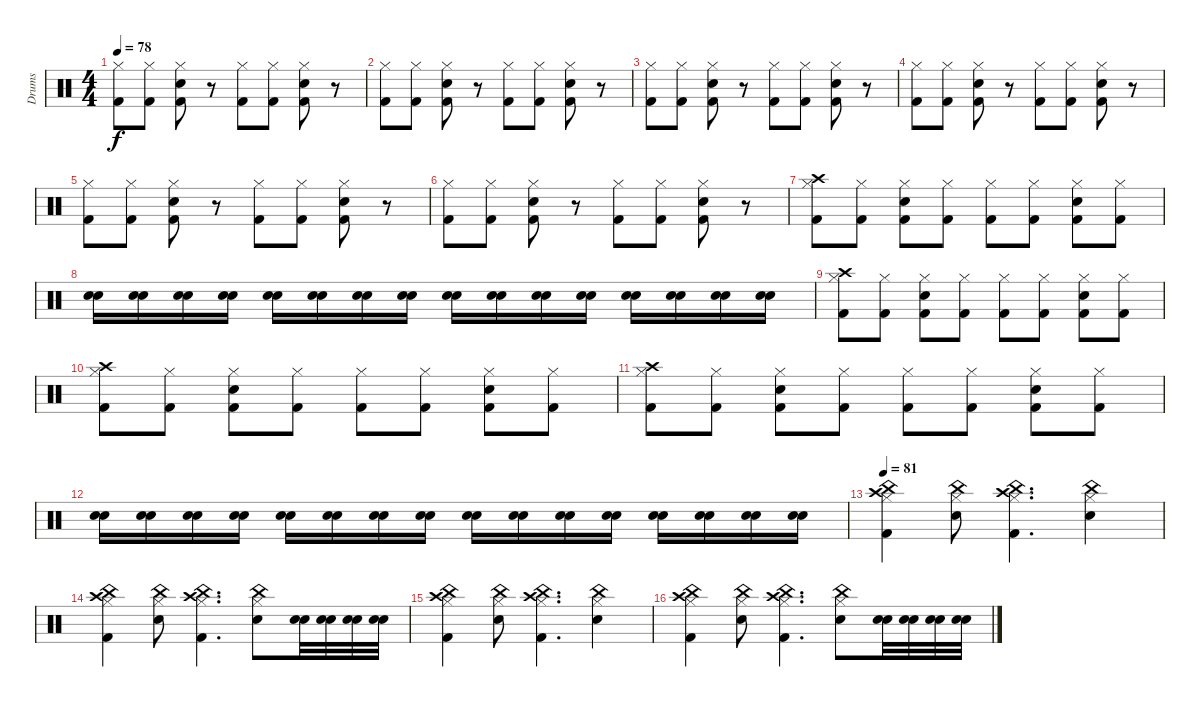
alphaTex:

\track ("Drums" "Drums") {instrument percussion}
\staff {score}
\articulation defaults
\ts (4 4)
\tempo 78
\clef neutral
\ks c
("Hi-Hat (closed)" "Kick (hit) 2").8{dy f} ("Hi-Hat (closed)" "Kick (hit) 2").8 ("Hi-Hat (closed)" "Kick (hit) 2" "Electric Snare (hit)").8 r.8 ("Hi-Hat (closed)" "Kick (hit) 2").8 ("Hi-Hat (closed)" "Kick (hit) 2").8 ("Hi-Hat (closed)" "Kick (hit) 2" "Electric Snare (hit)").8 r.8 |
("Hi-Hat (closed)" "Kick (hit) 2").8 ("Hi-Hat (closed)" "Kick (hit) 2").8 ("Hi-Hat (closed)" "Kick (hit) 2" "Electric Snare (hit)").8 r.8 ("Hi-Hat (closed)" "Kick (hit) 2").8 ("Hi-Hat (closed)" "Kick (hit) 2").8 ("Hi-Hat (closed)" "Kick (hit) 2" "Electric Snare (hit)").8 r.8 |
("Hi-Hat (closed)" "Kick (hit) 2").8 ("Hi-Hat (closed)" "Kick (hit) 2").8 ("Hi-Hat (closed)" "Kick (hit) 2" "Electric Snare (hit)").8 r.8 ("Hi-Hat (closed)" "Kick (hit) 2").8 ("Hi-Hat (closed)" "Kick (hit) 2").8 ("Hi-Hat (closed)" "Kick (hit) 2" "Electric Snare (hit)").8 r.8 |
("Hi-Hat (closed)" "Kick (hit) 2").8 ("Hi-Hat (closed)" "Kick (hit) 2").8 ("Hi-Hat (closed)" "Kick (hit) 2" "Electric Snare (hit)").8 r.8 ("Hi-Hat (closed)" "Kick (hit) 2").8 ("Hi-Hat (closed)" "Kick (hit) 2").8 ("Hi-Hat (closed)" "Kick (hit) 2" "Electric Snare (hit)").8 r.8 |
("Hi-Hat (closed)" "Kick (hit) 2").8 ("Hi-Hat (closed)" "Kick (hit) 2").8 ("Hi-Hat (closed)" "Kick (hit) 2" "Electric Snare (hit)").8 r.8 ("Hi-Hat (closed)" "Kick (hit) 2").8 ("Hi-Hat (closed)" "Kick (hit) 2").8 ("Hi-Hat (closed)" "Kick (hit) 2" "Electric Snare (hit)").8 r.8 |
("Hi-Hat (closed)" "Kick (hit) 2").8 ("Hi-Hat (closed)" "Kick (hit) 2").8 ("Hi-Hat (closed)" "Kick (hit) 2" "Electric Snare (hit)").8 r.8 ("Hi-Hat (closed)" "Kick (hit) 2").8 ("Hi-Hat (closed)" "Kick (hit) 2").8 ("Hi-Hat (closed)" "Kick (hit) 2" "Electric Snare (hit)").8 r.8 |
("Crash high (hit)" "Hi-Hat (closed)" "Kick (hit) 2").8 ("Hi-Hat (closed)" "Kick (hit) 2").8 ("Hi-Hat (closed)" "Kick (hit) 2" "Electric Snare (hit)").8 ("Hi-Hat (closed)" "Kick (hit) 2").8 ("Hi-Hat (closed)" "Kick (hit) 2").8 ("Hi-Hat (closed)" "Kick (hit) 2").8 ("Hi-Hat (closed)" "Kick (hit) 2" "Electric Snare (hit)").8 ("Hi-Hat (closed)" "Kick (hit) 2").8 |
("Electric Snare (hit)" "Snare (hit) 2").16 ("Electric Snare (hit)" "Snare (hit) 2").16 ("Electric Snare (hit)" "Snare (hit) 2").16 ("Electric Snare (hit)" "Snare (hit) 2").16 ("Electric Snare (hit)" "Snare (hit) 2").16 ("Electric Snare (hit)" "Snare (hit) 2").16 ("Electric Snare (hit)" "Snare (hit) 2").16 ("Electric Snare (hit)" "Snare (hit) 2").16 ("Electric Snare (hit)" "Snare (hit) 2").16 ("Electric Snare (hit)" "Snare (hit) 2").16 ("Electric Snare (hit)" "Snare (hit) 2").16 ("Electric Snare (hit)" "Snare (hit) 2").16 ("Electric Snare (hit)" "Snare (hit) 2").16 ("Electric Snare (hit)" "Snare (hit) 2").16 ("Electric Snare (hit)" "Snare (hit) 2").16 ("Electric Snare (hit)" "Snare (hit) 2").16 |
("Crash high (hit)" "Hi-Hat (closed)" "Kick (hit) 2").8 ("Hi-Hat (closed)" "Kick (hit) 2").8 ("Hi-Hat (closed)" "Kick (hit) 2" "Electric Snare (hit)").8 ("Hi-Hat (closed)" "Kick (hit) 2").8 ("Hi-Hat (closed)" "Kick (hit) 2").8 ("Hi-Hat (closed)" "Kick (hit) 2").8 ("Hi-Hat (closed)" "Kick (hit) 2" "Electric Snare (hit)").8 ("Hi-Hat (closed)" "Kick (hit) 2").8 |
("Crash high (hit)" "Hi-Hat (closed)" "Kick (hit) 2").8 ("Hi-Hat (closed)" "Kick (hit) 2").8 ("Hi-Hat (closed)" "Kick (hit) 2" "Electric Snare (hit)").8 ("Hi-Hat (closed)" "Kick (hit) 2").8 ("Hi-Hat (closed)" "Kick (hit) 2").8 ("Hi-Hat (closed)" "Kick (hit) 2").8 ("Hi-Hat (closed)" "Kick (hit) 2" "Electric Snare (hit)").8 ("Hi-Hat (closed)" "Kick (hit) 2").8 |
("Crash high (hit)" "Hi-Hat (closed)" "Kick (hit) 2").8 ("Hi-Hat (closed)" "Kick (hit) 2").8 ("Hi-Hat (closed)" "Kick (hit) 2" "Electric Snare (hit)").8 ("Hi-Hat (closed)" "Kick (hit) 2").8 ("Hi-Hat (closed)" "Kick (hit) 2").8 ("Hi-Hat (closed)" "Kick (hit) 2").8 ("Hi-Hat (closed)" "Kick (hit) 2" "Electric Snare (hit)").8 ("Hi-Hat (closed)" "Kick (hit) 2").8 |
("Electric Snare (hit)" "Snare (hit) 2").16 ("Electric Snare (hit)" "Snare (hit) 2").16 ("Electric Snare (hit)" "Snare (hit) 2").16 ("Electric Snare (hit)" "Snare (hit) 2").16 ("Electric Snare (hit)" "Snare (hit) 2").16 ("Electric Snare (hit)" "Snare (hit) 2").16 ("Electric Snare (hit)" "Snare (hit) 2").16 ("Electric Snare (hit)" "Snare (hit) 2").16 ("Electric Snare (hit)" "Snare (hit) 2").16 ("Electric Snare (hit)" "Snare (hit) 2").16 ("Electric Snare (hit)" "Snare (hit) 2").16 ("Electric Snare (hit)" "Snare (hit) 2").16 ("Electric Snare (hit)" "Snare (hit) 2").16 ("Electric Snare (hit)" "Snare (hit) 2").16 ("Electric Snare (hit)" "Snare (hit) 2").16 ("Electric Snare (hit)" "Snare (hit) 2").16 |
\tempo 81
("Crash high (hit)" "China (hit)" "Hi-Hat (closed)" "Kick (hit) 2").4 ("China (hit)" "Hi-Hat (closed)" "Electric Snare (hit)").8 ("Crash high (hit)" "China (hit)" "Hi-Hat (closed)" "Kick (hit) 2").4{d} ("China (hit)" "Hi-Hat (closed)" "Electric Snare (hit)").4 |
("Crash high (hit)" "China (hit)" "Hi-Hat (closed)" "Kick (hit) 2").4 ("China (hit)" "Hi-Hat (closed)" "Electric Snare (hit)").8 ("Crash high (hit)" "China (hit)" "Hi-Hat (closed)" "Kick (hit) 2").4{d} ("China (hit)" "Hi-Hat (closed)" "Electric Snare (hit)").8 ("Snare (hit) 2" "Electric Snare (hit)").32 ("Snare (hit) 2" "Electric Snare (hit)").32 ("Snare (hit) 2" "Electric Snare (hit)").32 ("Snare (hit) 2" "Electric Snare (hit)").32 |
("Crash high (hit)" "China (hit)" "Hi-Hat (closed)" "Kick (hit) 2").4 ("China (hit)" "Hi-Hat (closed)" "Electric Snare (hit)").8 ("Crash high (hit)" "China (hit)" "Hi-Hat (closed)" "Kick (hit) 2").4{d} ("China (hit)" "Hi-Hat (closed)" "Electric Snare (hit)").4 |
("Crash high (hit)" "China (hit)" "Hi-Hat (closed)" "Kick (hit) 2").4 ("China (hit)" "Hi-Hat (closed)" "Electric Snare (hit)").8 ("Crash high (hit)" "China (hit)" "Hi-Hat (closed)" "Kick (hit) 2").4{d} ("China (hit)" "Hi-Hat (closed)" "Electric Snare (hit)").8 ("Snare (hit) 2" "Electric Snare (hit)").32 ("Snare (hit) 2" "Electric Snare (hit)").32 ("Snare (hit) 2" "Electric Snare (hit)").32 ("Snare (hit) 2" "Electric Snare (hit)").32
